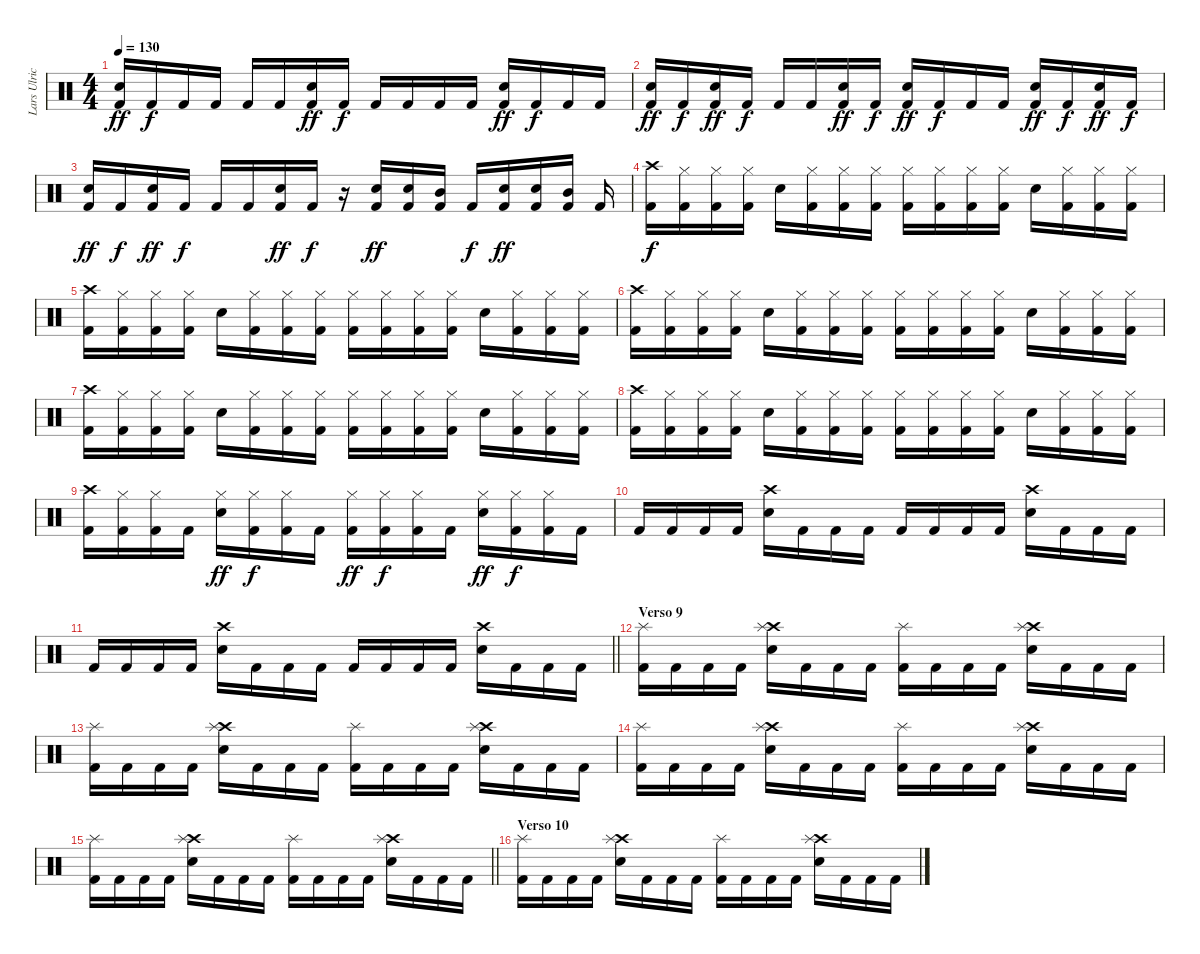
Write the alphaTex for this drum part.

\track ("Lars Ulrich" "Lars Ulric") {instrument percussion}
\staff {score}
\articulation defaults
\ts (4 4)
\tempo 130
\clef neutral
\ks c
("Kick (hit) 2" "Electric Snare (hit)").16{dy ff} "Kick (hit) 2".16{dy f} "Kick (hit) 2".16 "Kick (hit) 2".16 "Kick (hit) 2".16 "Kick (hit) 2".16 ("Kick (hit) 2" "Electric Snare (hit)").16{dy ff} "Kick (hit) 2".16{dy f} "Kick (hit) 2".16 "Kick (hit) 2".16 "Kick (hit) 2".16 "Kick (hit) 2".16 ("Kick (hit) 2" "Electric Snare (hit)").16{dy ff} "Kick (hit) 2".16{dy f} "Kick (hit) 2".16 "Kick (hit) 2".16 |
("Kick (hit) 2" "Electric Snare (hit)").16{dy ff} "Kick (hit) 2".16{dy f} ("Kick (hit) 2" "Electric Snare (hit)").16{dy ff} "Kick (hit) 2".16{dy f} "Kick (hit) 2".16 "Kick (hit) 2".16 ("Kick (hit) 2" "Electric Snare (hit)").16{dy ff} "Kick (hit) 2".16{dy f} ("Kick (hit) 2" "Electric Snare (hit)").16{dy ff} "Kick (hit) 2".16{dy f} "Kick (hit) 2".16 "Kick (hit) 2".16 ("Kick (hit) 2" "Electric Snare (hit)").16{dy ff} "Kick (hit) 2".16{dy f} ("Kick (hit) 2" "Electric Snare (hit)").16{dy ff} "Kick (hit) 2".16{dy f} |
("Kick (hit) 2" "Electric Snare (hit)").16{dy ff} "Kick (hit) 2".16{dy f} ("Kick (hit) 2" "Electric Snare (hit)").16{dy ff} "Kick (hit) 2".16{dy f} "Kick (hit) 2".16 "Kick (hit) 2".16 ("Kick (hit) 2" "Electric Snare (hit)").16{dy ff} "Kick (hit) 2".16{dy f} r.16 ("Kick (hit) 2" "Electric Snare (hit)").16{dy ff} ("Kick (hit) 2" "Electric Snare (hit)").16 ("Kick (hit) 2" "Mid Tom (hit)").16 "Kick (hit) 2".16{dy f} ("Kick (hit) 2" "Electric Snare (hit)").16{dy ff} ("Kick (hit) 2" "Electric Snare (hit)").16 ("Kick (hit) 2" "Mid Tom (hit)").16 "Kick (hit) 2".16 |
("Kick (hit) 2" "Crash high (hit)").16{dy f} ("Kick (hit) 2" "Hi-Hat (closed)").16 ("Kick (hit) 2" "Hi-Hat (closed)").16 ("Kick (hit) 2" "Hi-Hat (closed)").16 "Electric Snare (hit)".16 ("Kick (hit) 2" "Hi-Hat (closed)").16 ("Kick (hit) 2" "Hi-Hat (closed)").16 ("Kick (hit) 2" "Hi-Hat (closed)").16 ("Kick (hit) 2" "Hi-Hat (closed)").16 ("Kick (hit) 2" "Hi-Hat (closed)").16 ("Kick (hit) 2" "Hi-Hat (closed)").16 ("Kick (hit) 2" "Hi-Hat (closed)").16 "Electric Snare (hit)".16 ("Kick (hit) 2" "Hi-Hat (closed)").16 ("Kick (hit) 2" "Hi-Hat (closed)").16 ("Kick (hit) 2" "Hi-Hat (closed)").16 |
("Kick (hit) 2" "Crash high (hit)").16 ("Kick (hit) 2" "Hi-Hat (closed)").16 ("Kick (hit) 2" "Hi-Hat (closed)").16 ("Kick (hit) 2" "Hi-Hat (closed)").16 "Electric Snare (hit)".16 ("Kick (hit) 2" "Hi-Hat (closed)").16 ("Kick (hit) 2" "Hi-Hat (closed)").16 ("Kick (hit) 2" "Hi-Hat (closed)").16 ("Kick (hit) 2" "Hi-Hat (closed)").16 ("Kick (hit) 2" "Hi-Hat (closed)").16 ("Kick (hit) 2" "Hi-Hat (closed)").16 ("Kick (hit) 2" "Hi-Hat (closed)").16 "Electric Snare (hit)".16 ("Kick (hit) 2" "Hi-Hat (closed)").16 ("Kick (hit) 2" "Hi-Hat (closed)").16 ("Kick (hit) 2" "Hi-Hat (closed)").16 |
("Kick (hit) 2" "Crash high (hit)").16 ("Kick (hit) 2" "Hi-Hat (closed)").16 ("Kick (hit) 2" "Hi-Hat (closed)").16 ("Kick (hit) 2" "Hi-Hat (closed)").16 "Electric Snare (hit)".16 ("Kick (hit) 2" "Hi-Hat (closed)").16 ("Kick (hit) 2" "Hi-Hat (closed)").16 ("Kick (hit) 2" "Hi-Hat (closed)").16 ("Kick (hit) 2" "Hi-Hat (closed)").16 ("Kick (hit) 2" "Hi-Hat (closed)").16 ("Kick (hit) 2" "Hi-Hat (closed)").16 ("Kick (hit) 2" "Hi-Hat (closed)").16 "Electric Snare (hit)".16 ("Kick (hit) 2" "Hi-Hat (closed)").16 ("Kick (hit) 2" "Hi-Hat (closed)").16 ("Kick (hit) 2" "Hi-Hat (closed)").16 |
("Kick (hit) 2" "Crash high (hit)").16 ("Kick (hit) 2" "Hi-Hat (closed)").16 ("Kick (hit) 2" "Hi-Hat (closed)").16 ("Kick (hit) 2" "Hi-Hat (closed)").16 "Electric Snare (hit)".16 ("Kick (hit) 2" "Hi-Hat (closed)").16 ("Kick (hit) 2" "Hi-Hat (closed)").16 ("Kick (hit) 2" "Hi-Hat (closed)").16 ("Kick (hit) 2" "Hi-Hat (closed)").16 ("Kick (hit) 2" "Hi-Hat (closed)").16 ("Kick (hit) 2" "Hi-Hat (closed)").16 ("Kick (hit) 2" "Hi-Hat (closed)").16 "Electric Snare (hit)".16 ("Kick (hit) 2" "Hi-Hat (closed)").16 ("Kick (hit) 2" "Hi-Hat (closed)").16 ("Kick (hit) 2" "Hi-Hat (closed)").16 |
("Kick (hit) 2" "Crash high (hit)").16 ("Kick (hit) 2" "Hi-Hat (closed)").16 ("Kick (hit) 2" "Hi-Hat (closed)").16 ("Kick (hit) 2" "Hi-Hat (closed)").16 "Electric Snare (hit)".16 ("Kick (hit) 2" "Hi-Hat (closed)").16 ("Kick (hit) 2" "Hi-Hat (closed)").16 ("Kick (hit) 2" "Hi-Hat (closed)").16 ("Kick (hit) 2" "Hi-Hat (closed)").16 ("Kick (hit) 2" "Hi-Hat (closed)").16 ("Kick (hit) 2" "Hi-Hat (closed)").16 ("Kick (hit) 2" "Hi-Hat (closed)").16 "Electric Snare (hit)".16 ("Kick (hit) 2" "Hi-Hat (closed)").16 ("Kick (hit) 2" "Hi-Hat (closed)").16 ("Kick (hit) 2" "Hi-Hat (closed)").16 |
("Kick (hit) 2" "Crash high (hit)").16 ("Kick (hit) 2" "Hi-Hat (closed)").16 ("Kick (hit) 2" "Hi-Hat (closed)").16 "Kick (hit) 2".16 ("Electric Snare (hit)" "Hi-Hat (closed)").16{dy ff} ("Kick (hit) 2" "Hi-Hat (closed)").16{dy f} ("Kick (hit) 2" "Hi-Hat (closed)").16 "Kick (hit) 2".16 ("Kick (hit) 2" "Hi-Hat (closed)").16{dy ff} ("Kick (hit) 2" "Hi-Hat (closed)").16{dy f} ("Kick (hit) 2" "Hi-Hat (closed)").16 "Kick (hit) 2".16 ("Electric Snare (hit)" "Hi-Hat (closed)").16{dy ff} ("Kick (hit) 2" "Hi-Hat (closed)").16{dy f} ("Kick (hit) 2" "Hi-Hat (closed)").16 "Kick (hit) 2".16 |
"Kick (hit) 2".16 "Kick (hit) 2".16 "Kick (hit) 2".16 "Kick (hit) 2".16 ("Electric Snare (hit)" "Crash high (hit)").16 "Kick (hit) 2".16 "Kick (hit) 2".16 "Kick (hit) 2".16 "Kick (hit) 2".16 "Kick (hit) 2".16 "Kick (hit) 2".16 "Kick (hit) 2".16 ("Electric Snare (hit)" "Crash high (hit)").16 "Kick (hit) 2".16 "Kick (hit) 2".16 "Kick (hit) 2".16 |
\barLineRight lightlight "Kick (hit) 2".16 "Kick (hit) 2".16 "Kick (hit) 2".16 "Kick (hit) 2".16
("Electric Snare (hit)" "Crash high (hit)").16 "Kick (hit) 2".16 "Kick (hit) 2".16 "Kick (hit) 2".16 "Kick (hit) 2".16 "Kick (hit) 2".16 "Kick (hit) 2".16 "Kick (hit) 2".16 ("Electric Snare (hit)" "Crash high (hit)").16 "Kick (hit) 2".16 "Kick (hit) 2".16 "Kick (hit) 2".16 |
\section ("" "Verso 9")
("Kick (hit) 2" "Splash (hit)").16 "Kick (hit) 2".16 "Kick (hit) 2".16 "Kick (hit) 2".16 ("Electric Snare (hit)" "Crash high (hit)" "Splash (hit)").16 "Kick (hit) 2".16 "Kick (hit) 2".16 "Kick (hit) 2".16 ("Kick (hit) 2" "Splash (hit)").16 "Kick (hit) 2".16 "Kick (hit) 2".16 "Kick (hit) 2".16 ("Electric Snare (hit)" "Crash high (hit)" "Splash (hit)").16 "Kick (hit) 2".16 "Kick (hit) 2".16 "Kick (hit) 2".16 |
("Kick (hit) 2" "Splash (hit)").16 "Kick (hit) 2".16 "Kick (hit) 2".16 "Kick (hit) 2".16 ("Electric Snare (hit)" "Crash high (hit)" "Splash (hit)").16 "Kick (hit) 2".16 "Kick (hit) 2".16 "Kick (hit) 2".16 ("Kick (hit) 2" "Splash (hit)").16 "Kick (hit) 2".16 "Kick (hit) 2".16 "Kick (hit) 2".16 ("Electric Snare (hit)" "Crash high (hit)" "Splash (hit)").16 "Kick (hit) 2".16 "Kick (hit) 2".16 "Kick (hit) 2".16 |
("Kick (hit) 2" "Splash (hit)").16 "Kick (hit) 2".16 "Kick (hit) 2".16 "Kick (hit) 2".16 ("Electric Snare (hit)" "Crash high (hit)" "Splash (hit)").16 "Kick (hit) 2".16 "Kick (hit) 2".16 "Kick (hit) 2".16 ("Kick (hit) 2" "Splash (hit)").16 "Kick (hit) 2".16 "Kick (hit) 2".16 "Kick (hit) 2".16 ("Electric Snare (hit)" "Crash high (hit)" "Splash (hit)").16 "Kick (hit) 2".16 "Kick (hit) 2".16 "Kick (hit) 2".16 |
\barLineRight lightlight
("Kick (hit) 2" "Splash (hit)").16 "Kick (hit) 2".16 "Kick (hit) 2".16 "Kick (hit) 2".16 ("Electric Snare (hit)" "Crash high (hit)" "Splash (hit)").16 "Kick (hit) 2".16 "Kick (hit) 2".16 "Kick (hit) 2".16 ("Kick (hit) 2" "Splash (hit)").16 "Kick (hit) 2".16 "Kick (hit) 2".16 "Kick (hit) 2".16 ("Electric Snare (hit)" "Crash high (hit)" "Splash (hit)").16 "Kick (hit) 2".16 "Kick (hit) 2".16 "Kick (hit) 2".16 |
\section ("" "Verso 10")
("Kick (hit) 2" "Splash (hit)").16 "Kick (hit) 2".16 "Kick (hit) 2".16 "Kick (hit) 2".16 ("Electric Snare (hit)" "Crash high (hit)" "Splash (hit)").16 "Kick (hit) 2".16 "Kick (hit) 2".16 "Kick (hit) 2".16 ("Kick (hit) 2" "Splash (hit)").16 "Kick (hit) 2".16 "Kick (hit) 2".16 "Kick (hit) 2".16 ("Electric Snare (hit)" "Crash high (hit)" "Splash (hit)").16 "Kick (hit) 2".16 "Kick (hit) 2".16 "Kick (hit) 2".16
